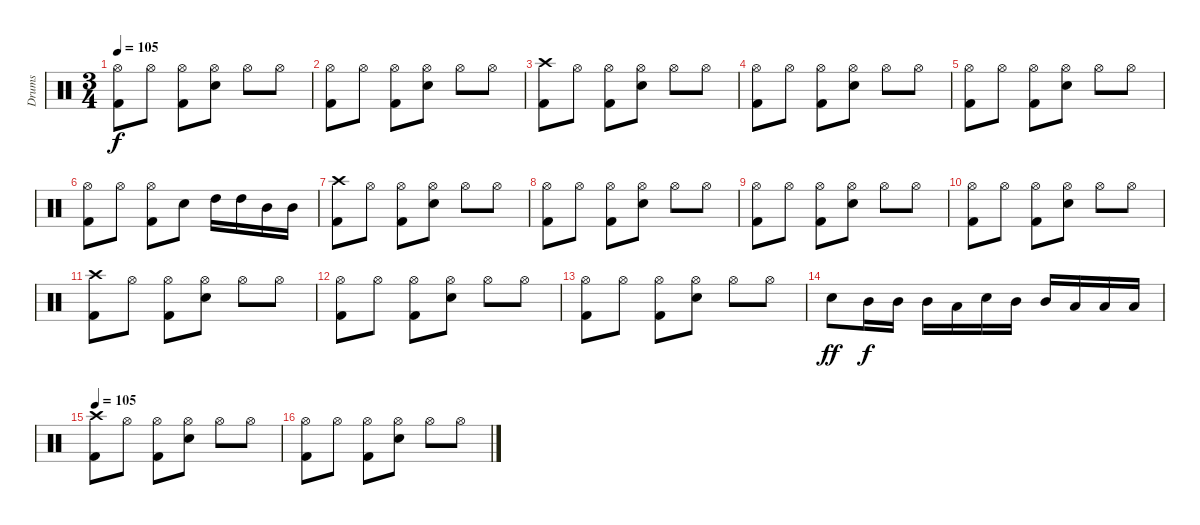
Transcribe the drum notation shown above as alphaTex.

\track ("Drums" "Drums") {instrument percussion}
\staff {score}
\articulation defaults
\ts (3 4)
\tempo 105
\clef neutral
\ks c
("Hi-Hat (open)" "Kick (hit) 2").8{dy f} "Hi-Hat (open)".8 ("Hi-Hat (open)" "Kick (hit) 2").8 ("Hi-Hat (open)" "Snare (hit) 2").8 "Hi-Hat (open)".8 "Hi-Hat (open)".8 |
("Hi-Hat (open)" "Kick (hit) 2").8 "Hi-Hat (open)".8 ("Hi-Hat (open)" "Kick (hit) 2").8 ("Hi-Hat (open)" "Snare (hit) 2").8 "Hi-Hat (open)".8 "Hi-Hat (open)".8 |
("Crash high (hit)" "Kick (hit) 2").8 "Hi-Hat (open)".8 ("Hi-Hat (open)" "Kick (hit) 2").8 ("Hi-Hat (open)" "Snare (hit) 2").8 "Hi-Hat (open)".8 "Hi-Hat (open)".8 |
("Hi-Hat (open)" "Kick (hit) 2").8 "Hi-Hat (open)".8 ("Hi-Hat (open)" "Kick (hit) 2").8 ("Hi-Hat (open)" "Snare (hit) 2").8 "Hi-Hat (open)".8 "Hi-Hat (open)".8 |
("Hi-Hat (open)" "Kick (hit) 2").8 "Hi-Hat (open)".8 ("Hi-Hat (open)" "Kick (hit) 2").8 ("Hi-Hat (open)" "Snare (hit) 2").8 "Hi-Hat (open)".8 "Hi-Hat (open)".8 |
("Hi-Hat (open)" "Kick (hit) 2").8 "Hi-Hat (open)".8 ("Hi-Hat (open)" "Kick (hit) 2").8 "Snare (hit) 2".8 "High Tom (hit)".16 "High Tom (hit)".16 "Mid Tom (hit)".16 "Mid Tom (hit)".16 |
("Crash high (hit)" "Kick (hit) 2").8 "Hi-Hat (open)".8 ("Hi-Hat (open)" "Kick (hit) 2").8 ("Hi-Hat (open)" "Snare (hit) 2").8 "Hi-Hat (open)".8 "Hi-Hat (open)".8 |
("Hi-Hat (open)" "Kick (hit) 2").8 "Hi-Hat (open)".8 ("Hi-Hat (open)" "Kick (hit) 2").8 ("Hi-Hat (open)" "Snare (hit) 2").8 "Hi-Hat (open)".8 "Hi-Hat (open)".8 |
("Hi-Hat (open)" "Kick (hit) 2").8 "Hi-Hat (open)".8 ("Hi-Hat (open)" "Kick (hit) 2").8 ("Hi-Hat (open)" "Snare (hit) 2").8 "Hi-Hat (open)".8 "Hi-Hat (open)".8 |
("Hi-Hat (open)" "Kick (hit) 2").8 "Hi-Hat (open)".8 ("Hi-Hat (open)" "Kick (hit) 2").8 ("Hi-Hat (open)" "Snare (hit) 2").8 "Hi-Hat (open)".8 "Hi-Hat (open)".8 |
("Crash high (hit)" "Kick (hit) 2").8 "Hi-Hat (open)".8 ("Hi-Hat (open)" "Kick (hit) 2").8 ("Hi-Hat (open)" "Snare (hit) 2").8 "Hi-Hat (open)".8 "Hi-Hat (open)".8 |
("Hi-Hat (open)" "Kick (hit) 2").8 "Hi-Hat (open)".8 ("Hi-Hat (open)" "Kick (hit) 2").8 ("Hi-Hat (open)" "Snare (hit) 2").8 "Hi-Hat (open)".8 "Hi-Hat (open)".8 |
("Hi-Hat (open)" "Kick (hit) 2").8 "Hi-Hat (open)".8 ("Hi-Hat (open)" "Kick (hit) 2").8 ("Hi-Hat (open)" "Snare (hit) 2").8 "Hi-Hat (open)".8 "Hi-Hat (open)".8 |
"Snare (hit) 2".8{dy ff} "Mid Tom (hit)".16{dy f} "Mid Tom (hit)".16 "Mid Tom (hit)".16 "Low Tom (hit)".16 "Snare (hit) 2".16 "Mid Tom (hit)".16 "Mid Tom (hit)".16 "Low Tom (hit)".16 "Low Tom (hit)".16 "Low Tom (hit)".16 |
\tempo 105
("Crash high (hit)" "Kick (hit) 2").8 "Hi-Hat (open)".8 ("Hi-Hat (open)" "Kick (hit) 2").8 ("Hi-Hat (open)" "Snare (hit) 2").8 "Hi-Hat (open)".8 "Hi-Hat (open)".8 |
("Hi-Hat (open)" "Kick (hit) 2").8 "Hi-Hat (open)".8 ("Hi-Hat (open)" "Kick (hit) 2").8 ("Hi-Hat (open)" "Snare (hit) 2").8 "Hi-Hat (open)".8 "Hi-Hat (open)".8
